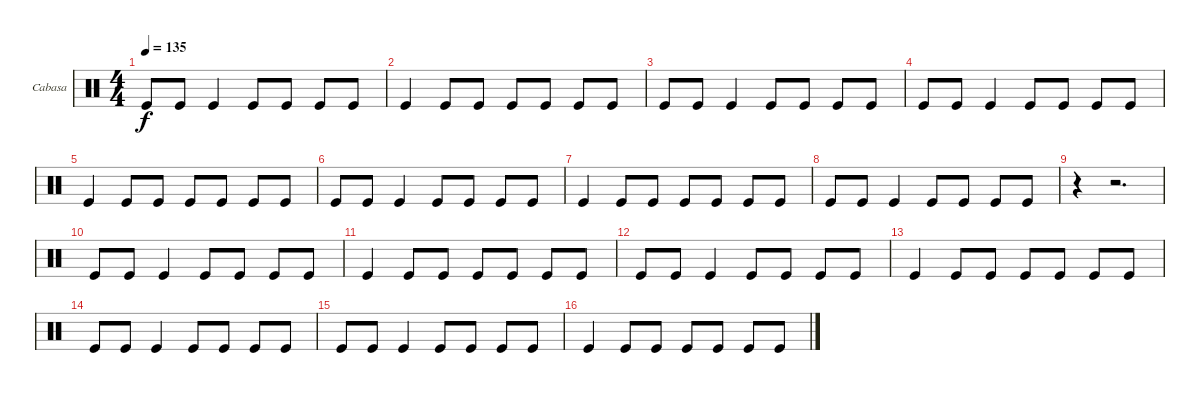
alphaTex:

\bracketExtendMode groupsimilarinstruments
\firstSystemTrackNameOrientation horizontal
\otherSystemsTrackNameOrientation horizontal
\track ("Cabasa" "Cabasa") {instrument percussion}
\staff {score}
\articulation defaults
\ts (4 4)
\tempo 135
\clef neutral
\ks c "Kick (hit)".8{dy f} "Kick (hit)".8 "Kick (hit)".4 "Kick (hit)".8 "Kick (hit)".8 "Kick (hit)".8 "Kick (hit)".8
|
"Kick (hit)".4 "Kick (hit)".8 "Kick (hit)".8 "Kick (hit)".8 "Kick (hit)".8 "Kick (hit)".8 "Kick (hit)".8 |
"Kick (hit)".8 "Kick (hit)".8 "Kick (hit)".4 "Kick (hit)".8 "Kick (hit)".8 "Kick (hit)".8 "Kick (hit)".8 |
"Kick (hit)".8 "Kick (hit)".8 "Kick (hit)".4 "Kick (hit)".8 "Kick (hit)".8 "Kick (hit)".8 "Kick (hit)".8 |
"Kick (hit)".4 "Kick (hit)".8 "Kick (hit)".8 "Kick (hit)".8 "Kick (hit)".8 "Kick (hit)".8 "Kick (hit)".8 |
"Kick (hit)".8 "Kick (hit)".8 "Kick (hit)".4 "Kick (hit)".8 "Kick (hit)".8 "Kick (hit)".8 "Kick (hit)".8 |
"Kick (hit)".4 "Kick (hit)".8 "Kick (hit)".8 "Kick (hit)".8 "Kick (hit)".8 "Kick (hit)".8 "Kick (hit)".8 |
"Kick (hit)".8 "Kick (hit)".8 "Kick (hit)".4 "Kick (hit)".8 "Kick (hit)".8 "Kick (hit)".8 "Kick (hit)".8 |
r.4 r.2{d} |
"Kick (hit)".8 "Kick (hit)".8 "Kick (hit)".4 "Kick (hit)".8 "Kick (hit)".8 "Kick (hit)".8 "Kick (hit)".8 |
"Kick (hit)".4 "Kick (hit)".8 "Kick (hit)".8 "Kick (hit)".8 "Kick (hit)".8 "Kick (hit)".8 "Kick (hit)".8 |
"Kick (hit)".8 "Kick (hit)".8 "Kick (hit)".4 "Kick (hit)".8 "Kick (hit)".8 "Kick (hit)".8 "Kick (hit)".8 |
"Kick (hit)".4 "Kick (hit)".8 "Kick (hit)".8 "Kick (hit)".8 "Kick (hit)".8 "Kick (hit)".8 "Kick (hit)".8 |
"Kick (hit)".8 "Kick (hit)".8 "Kick (hit)".4 "Kick (hit)".8 "Kick (hit)".8 "Kick (hit)".8 "Kick (hit)".8 |
"Kick (hit)".8 "Kick (hit)".8 "Kick (hit)".4 "Kick (hit)".8 "Kick (hit)".8 "Kick (hit)".8 "Kick (hit)".8 |
"Kick (hit)".4 "Kick (hit)".8 "Kick (hit)".8 "Kick (hit)".8 "Kick (hit)".8 "Kick (hit)".8 "Kick (hit)".8
